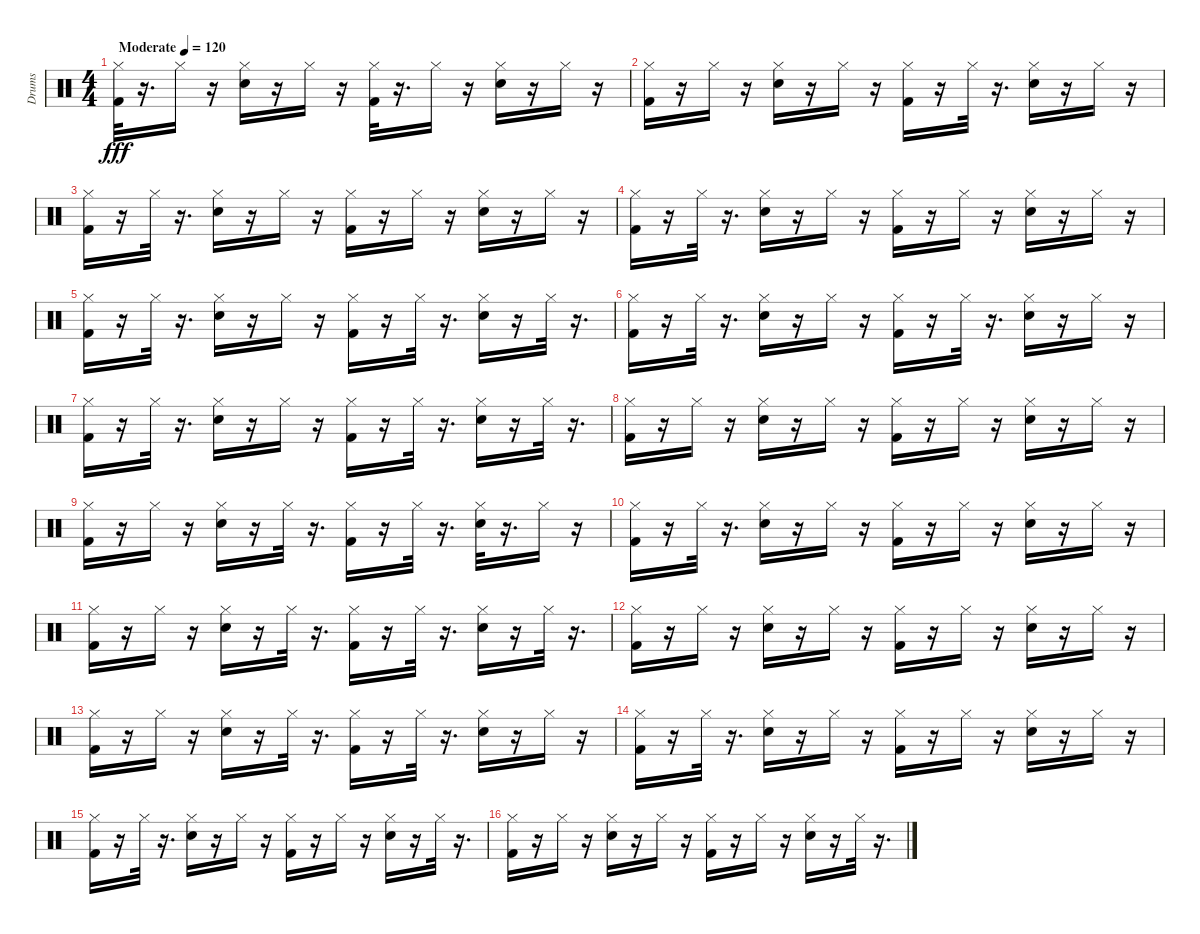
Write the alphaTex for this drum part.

\track ("Drums" "Drums") {instrument percussion}
\staff {score}
\articulation defaults
\ts (4 4)
\tempo (120 "Moderate")
\clef neutral
\ks c
("Hi-Hat (closed)" "Kick (hit) 2").32{dy fff} r.16{d} "Hi-Hat (closed)".16 r.16 ("Snare (hit) 2" "Hi-Hat (closed)").16 r.16 "Hi-Hat (closed)".16 r.16 ("Hi-Hat (closed)" "Kick (hit) 2").32 r.16{d} "Hi-Hat (closed)".16 r.16 ("Snare (hit) 2" "Hi-Hat (closed)").16 r.16 "Hi-Hat (closed)".16 r.16 |
("Hi-Hat (closed)" "Kick (hit) 2").16 r.16 "Hi-Hat (closed)".16 r.16 ("Snare (hit) 2" "Hi-Hat (closed)").16 r.16 "Hi-Hat (closed)".16 r.16 ("Hi-Hat (closed)" "Kick (hit) 2").16 r.16 "Hi-Hat (closed)".32 r.16{d} ("Snare (hit) 2" "Hi-Hat (closed)").16 r.16 "Hi-Hat (closed)".16 r.16 |
("Hi-Hat (closed)" "Kick (hit) 2").16 r.16 "Hi-Hat (closed)".32 r.16{d} ("Snare (hit) 2" "Hi-Hat (closed)").16 r.16 "Hi-Hat (closed)".16 r.16 ("Hi-Hat (closed)" "Kick (hit) 2").16 r.16 "Hi-Hat (closed)".16 r.16 ("Snare (hit) 2" "Hi-Hat (closed)").16 r.16 "Hi-Hat (closed)".16 r.16 |
("Hi-Hat (closed)" "Kick (hit) 2").16 r.16 "Hi-Hat (closed)".32 r.16{d} ("Snare (hit) 2" "Hi-Hat (closed)").16 r.16 "Hi-Hat (closed)".16 r.16 ("Hi-Hat (closed)" "Kick (hit) 2").16 r.16 "Hi-Hat (closed)".16 r.16 ("Snare (hit) 2" "Hi-Hat (closed)").16 r.16 "Hi-Hat (closed)".16 r.16 |
("Hi-Hat (closed)" "Kick (hit) 2").16 r.16 "Hi-Hat (closed)".32 r.16{d} ("Snare (hit) 2" "Hi-Hat (closed)").16 r.16 "Hi-Hat (closed)".16 r.16 ("Hi-Hat (closed)" "Kick (hit) 2").16 r.16 "Hi-Hat (closed)".32 r.16{d} ("Snare (hit) 2" "Hi-Hat (closed)").16 r.16 "Hi-Hat (closed)".32 r.16{d} |
("Hi-Hat (closed)" "Kick (hit) 2").16 r.16 "Hi-Hat (closed)".32 r.16{d} ("Snare (hit) 2" "Hi-Hat (closed)").16 r.16 "Hi-Hat (closed)".16 r.16 ("Hi-Hat (closed)" "Kick (hit) 2").16 r.16 "Hi-Hat (closed)".32 r.16{d} ("Snare (hit) 2" "Hi-Hat (closed)").16 r.16 "Hi-Hat (closed)".16 r.16 |
("Hi-Hat (closed)" "Kick (hit) 2").16 r.16 "Hi-Hat (closed)".32 r.16{d} ("Snare (hit) 2" "Hi-Hat (closed)").16 r.16 "Hi-Hat (closed)".16 r.16 ("Hi-Hat (closed)" "Kick (hit) 2").16 r.16 "Hi-Hat (closed)".32 r.16{d} ("Snare (hit) 2" "Hi-Hat (closed)").16 r.16 "Hi-Hat (closed)".32 r.16{d} |
("Hi-Hat (closed)" "Kick (hit) 2").16 r.16 "Hi-Hat (closed)".16 r.16 ("Snare (hit) 2" "Hi-Hat (closed)").16 r.16 "Hi-Hat (closed)".16 r.16 ("Hi-Hat (closed)" "Kick (hit) 2").16 r.16 "Hi-Hat (closed)".16 r.16 ("Snare (hit) 2" "Hi-Hat (closed)").16 r.16 "Hi-Hat (closed)".16 r.16 |
("Hi-Hat (closed)" "Kick (hit) 2").16 r.16 "Hi-Hat (closed)".16 r.16 ("Snare (hit) 2" "Hi-Hat (closed)").16 r.16 "Hi-Hat (closed)".32 r.16{d} ("Hi-Hat (closed)" "Kick (hit) 2").16 r.16 "Hi-Hat (closed)".32 r.16{d} ("Snare (hit) 2" "Hi-Hat (closed)").32 r.16{d} "Hi-Hat (closed)".16 r.16 |
("Hi-Hat (closed)" "Kick (hit) 2").16 r.16 "Hi-Hat (closed)".32 r.16{d} ("Snare (hit) 2" "Hi-Hat (closed)").16 r.16 "Hi-Hat (closed)".16 r.16 ("Hi-Hat (closed)" "Kick (hit) 2").16 r.16 "Hi-Hat (closed)".16 r.16 ("Snare (hit) 2" "Hi-Hat (closed)").16 r.16 "Hi-Hat (closed)".16 r.16 |
("Hi-Hat (closed)" "Kick (hit) 2").16 r.16 "Hi-Hat (closed)".16 r.16 ("Snare (hit) 2" "Hi-Hat (closed)").16 r.16 "Hi-Hat (closed)".32 r.16{d} ("Hi-Hat (closed)" "Kick (hit) 2").16 r.16 "Hi-Hat (closed)".32 r.16{d} ("Snare (hit) 2" "Hi-Hat (closed)").16 r.16 "Hi-Hat (closed)".32 r.16{d} |
("Hi-Hat (closed)" "Kick (hit) 2").16 r.16 "Hi-Hat (closed)".16 r.16 ("Snare (hit) 2" "Hi-Hat (closed)").16 r.16 "Hi-Hat (closed)".16 r.16 ("Hi-Hat (closed)" "Kick (hit) 2").16 r.16 "Hi-Hat (closed)".16 r.16 ("Snare (hit) 2" "Hi-Hat (closed)").16 r.16 "Hi-Hat (closed)".16 r.16 |
("Hi-Hat (closed)" "Kick (hit) 2").16 r.16 "Hi-Hat (closed)".16 r.16 ("Snare (hit) 2" "Hi-Hat (closed)").16 r.16 "Hi-Hat (closed)".32 r.16{d} ("Hi-Hat (closed)" "Kick (hit) 2").16 r.16 "Hi-Hat (closed)".32 r.16{d} ("Snare (hit) 2" "Hi-Hat (closed)").16 r.16 "Hi-Hat (closed)".16 r.16 |
("Hi-Hat (closed)" "Kick (hit) 2").16 r.16 "Hi-Hat (closed)".32 r.16{d} ("Snare (hit) 2" "Hi-Hat (closed)").16 r.16 "Hi-Hat (closed)".16 r.16 ("Hi-Hat (closed)" "Kick (hit) 2").16 r.16 "Hi-Hat (closed)".16 r.16 ("Snare (hit) 2" "Hi-Hat (closed)").16 r.16 "Hi-Hat (closed)".16 r.16 |
("Hi-Hat (closed)" "Kick (hit) 2").16 r.16 "Hi-Hat (closed)".32 r.16{d} ("Snare (hit) 2" "Hi-Hat (closed)").16 r.16 "Hi-Hat (closed)".16 r.16 ("Hi-Hat (closed)" "Kick (hit) 2").16 r.16 "Hi-Hat (closed)".16 r.16 ("Snare (hit) 2" "Hi-Hat (closed)").16 r.16 "Hi-Hat (closed)".32 r.16{d} |
("Hi-Hat (closed)" "Kick (hit) 2").16 r.16 "Hi-Hat (closed)".16 r.16 ("Snare (hit) 2" "Hi-Hat (closed)").16 r.16 "Hi-Hat (closed)".16 r.16 ("Hi-Hat (closed)" "Kick (hit) 2").16 r.16 "Hi-Hat (closed)".16 r.16 ("Snare (hit) 2" "Hi-Hat (closed)").16 r.16 "Hi-Hat (closed)".32 r.16{d}
